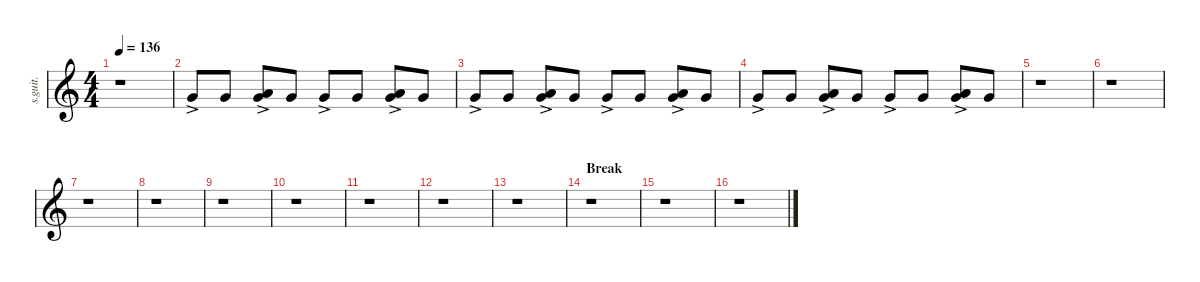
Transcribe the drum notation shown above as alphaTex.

\defaultSystemsLayout 4
\hideDynamics
\bracketExtendMode nobrackets
\track ("Shawn Crahan " "s.guit.") {instrument percussion}
\staff {score}
\articulation defaults
\ts (4 4)
\tempo 136
\clef g2
\ks c
r.1{dy fff} |
"Very Low Tom (hit)"{ac}.8{lyrics (0 "") lyrics (1 "") lyrics (2 "") lyrics (3 "") lyrics (4 "")} "Very Low Tom (hit)".8{lyrics (0 "") lyrics (1 "") lyrics (2 "") lyrics (3 "") lyrics (4 "")} ("Very Low Tom (hit)"{ac} "Low Floor Tom (hit)").8{lyrics (0 "") lyrics (1 "") lyrics (2 "") lyrics (3 "") lyrics (4 "")} "Very Low Tom (hit)".8{lyrics (0 "") lyrics (1 "") lyrics (2 "") lyrics (3 "") lyrics (4 "")} "Very Low Tom (hit)"{ac}.8{lyrics (0 "") lyrics (1 "") lyrics (2 "") lyrics (3 "") lyrics (4 "")} "Very Low Tom (hit)".8{lyrics (0 "") lyrics (1 "") lyrics (2 "") lyrics (3 "") lyrics (4 "")} ("Very Low Tom (hit)"{ac} "Low Floor Tom (hit)").8{lyrics (0 "") lyrics (1 "") lyrics (2 "") lyrics (3 "") lyrics (4 "")} "Very Low Tom (hit)".8{lyrics (0 "") lyrics (1 "") lyrics (2 "") lyrics (3 "") lyrics (4 "")} |
"Very Low Tom (hit)"{ac}.8{lyrics (0 "") lyrics (1 "") lyrics (2 "") lyrics (3 "") lyrics (4 "")} "Very Low Tom (hit)".8{lyrics (0 "") lyrics (1 "") lyrics (2 "") lyrics (3 "") lyrics (4 "")} ("Very Low Tom (hit)"{ac} "Low Floor Tom (hit)").8{lyrics (0 "") lyrics (1 "") lyrics (2 "") lyrics (3 "") lyrics (4 "")} "Very Low Tom (hit)".8{lyrics (0 "") lyrics (1 "") lyrics (2 "") lyrics (3 "") lyrics (4 "")} "Very Low Tom (hit)"{ac}.8{lyrics (0 "") lyrics (1 "") lyrics (2 "") lyrics (3 "") lyrics (4 "")} "Very Low Tom (hit)".8{lyrics (0 "") lyrics (1 "") lyrics (2 "") lyrics (3 "") lyrics (4 "")} ("Very Low Tom (hit)"{ac} "Low Floor Tom (hit)").8{lyrics (0 "") lyrics (1 "") lyrics (2 "") lyrics (3 "") lyrics (4 "")} "Very Low Tom (hit)".8{lyrics (0 "") lyrics (1 "") lyrics (2 "") lyrics (3 "") lyrics (4 "")} |
"Very Low Tom (hit)"{ac}.8{lyrics (0 "") lyrics (1 "") lyrics (2 "") lyrics (3 "") lyrics (4 "")} "Very Low Tom (hit)".8{lyrics (0 "") lyrics (1 "") lyrics (2 "") lyrics (3 "") lyrics (4 "")} ("Very Low Tom (hit)"{ac} "Low Floor Tom (hit)").8{lyrics (0 "") lyrics (1 "") lyrics (2 "") lyrics (3 "") lyrics (4 "")} "Very Low Tom (hit)".8{lyrics (0 "") lyrics (1 "") lyrics (2 "") lyrics (3 "") lyrics (4 "")} "Very Low Tom (hit)"{ac}.8{lyrics (0 "") lyrics (1 "") lyrics (2 "") lyrics (3 "") lyrics (4 "")} "Very Low Tom (hit)".8{lyrics (0 "") lyrics (1 "") lyrics (2 "") lyrics (3 "") lyrics (4 "")} ("Very Low Tom (hit)"{ac} "Low Floor Tom (hit)").8{lyrics (0 "") lyrics (1 "") lyrics (2 "") lyrics (3 "") lyrics (4 "")} "Very Low Tom (hit)".8{lyrics (0 "") lyrics (1 "") lyrics (2 "") lyrics (3 "") lyrics (4 "")} |
r.1 |
r.1 |
r.1 |
r.1 |
r.1 |
r.1 |
r.1 |
r.1 |
r.1 |
\section ("" "Break")
r.1 |
r.1 |
r.1
